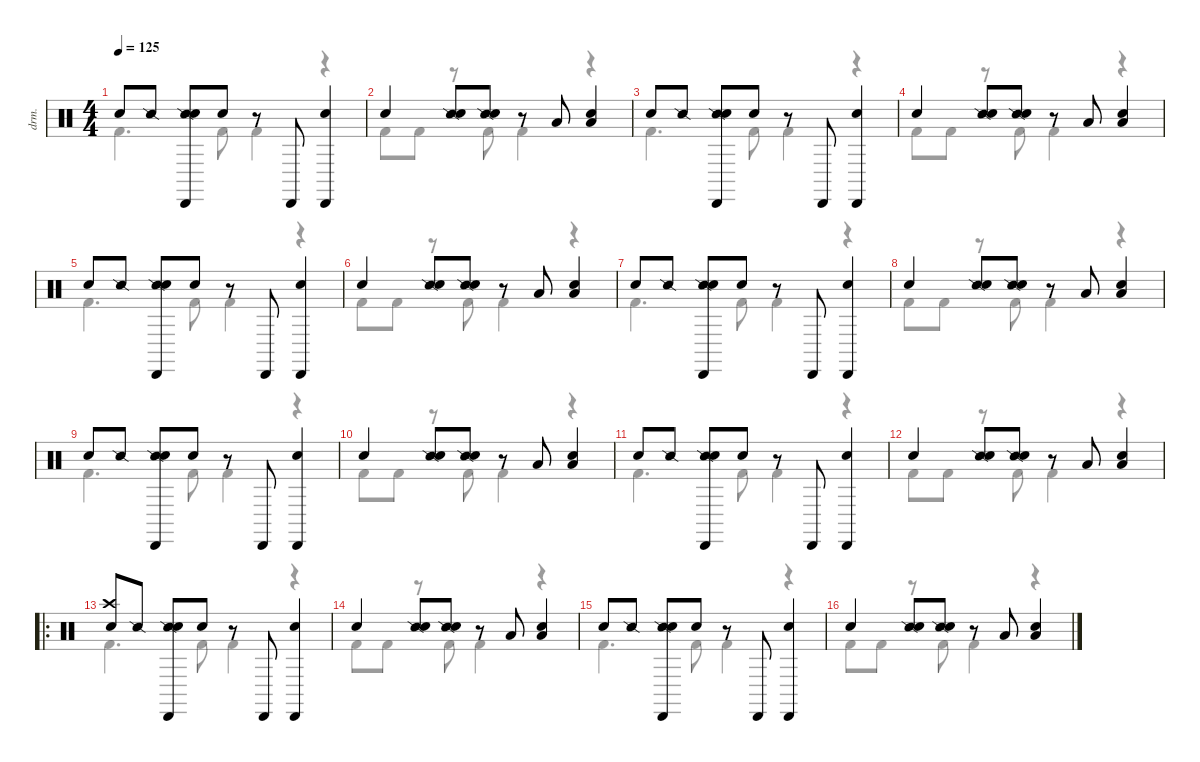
\defaultSystemsLayout 4
\hideDynamics
\bracketExtendMode nobrackets
\otherSystemsTrackNameOrientation horizontal
\track ("Drums" "drm.") {instrument percussion}
\staff {score}
\articulation defaults
\voice
\ts (4 4)
\tempo 125
\clef neutral
\ks c "Hand Clap (hit)".8{dy p beam Up} "Snare (side stick) 2".8{dy f beam Up}
("Snare (side stick) 2" "Cabasa (hit)" "Snare (hit) 2").8{beam Up} "Hand Clap (hit)".8{dy p beam Up} r.8{beam Up} "Cabasa (hit)".8{dy f beam Up} ("Cabasa (hit)" "Snare (hit) 2").4{beam Up} |
"Hand Clap (hit)".4{dy p beam Up} ("Snare (side stick) 2" "Snare (hit) 2").8{dy mf beam Up} ("Snare (side stick) 2" "Hand Clap (hit)").8{beam Up} r.8{beam Up} "Low Tom (hit)".8{dy f beam Up} ("Low Tom (hit)" "Snare (hit) 2").4{beam Up} |
"Hand Clap (hit)".8{dy p beam Up} "Snare (side stick) 2".8{dy f beam Up} ("Snare (side stick) 2" "Cabasa (hit)" "Snare (hit) 2").8{beam Up} "Hand Clap (hit)".8{dy p beam Up} r.8{beam Up} "Cabasa (hit)".8{dy f beam Up} ("Cabasa (hit)" "Snare (hit) 2").4{beam Up} |
"Hand Clap (hit)".4{dy p beam Up} ("Snare (side stick) 2" "Snare (hit) 2").8{dy mf beam Up} ("Snare (side stick) 2" "Hand Clap (hit)").8{beam Up} r.8{beam Up} "Low Tom (hit)".8{dy f beam Up} ("Low Tom (hit)" "Snare (hit) 2").4{beam Up} |
"Hand Clap (hit)".8{dy p beam Up} "Snare (side stick) 2".8{dy f beam Up} ("Snare (side stick) 2" "Cabasa (hit)" "Snare (hit) 2").8{beam Up} "Hand Clap (hit)".8{dy p beam Up} r.8{beam Up} "Cabasa (hit)".8{dy f beam Up} ("Cabasa (hit)" "Snare (hit) 2").4{beam Up} |
"Hand Clap (hit)".4{dy p beam Up} ("Snare (side stick) 2" "Snare (hit) 2").8{dy mf beam Up} ("Snare (side stick) 2" "Hand Clap (hit)").8{beam Up} r.8{beam Up} "Low Tom (hit)".8{dy f beam Up} ("Low Tom (hit)" "Snare (hit) 2").4{beam Up} |
"Hand Clap (hit)".8{dy p beam Up} "Snare (side stick) 2".8{dy f beam Up} ("Snare (side stick) 2" "Cabasa (hit)" "Snare (hit) 2").8{beam Up} "Hand Clap (hit)".8{dy p beam Up} r.8{beam Up} "Cabasa (hit)".8{dy f beam Up} ("Cabasa (hit)" "Snare (hit) 2").4{beam Up} |
"Hand Clap (hit)".4{dy p beam Up} ("Snare (side stick) 2" "Snare (hit) 2").8{dy mf beam Up} ("Snare (side stick) 2" "Hand Clap (hit)").8{beam Up} r.8{beam Up} "Low Tom (hit)".8{dy f beam Up} ("Low Tom (hit)" "Snare (hit) 2").4{beam Up} |
"Hand Clap (hit)".8{dy p beam Up} "Snare (side stick) 2".8{dy f beam Up} ("Snare (side stick) 2" "Cabasa (hit)" "Snare (hit) 2").8{beam Up} "Hand Clap (hit)".8{dy p beam Up} r.8{beam Up} "Cabasa (hit)".8{dy f beam Up} ("Cabasa (hit)" "Snare (hit) 2").4{beam Up} |
"Hand Clap (hit)".4{dy p beam Up} ("Snare (side stick) 2" "Snare (hit) 2").8{dy mf beam Up} ("Snare (side stick) 2" "Hand Clap (hit)").8{beam Up} r.8{beam Up} "Low Tom (hit)".8{dy f beam Up} ("Low Tom (hit)" "Snare (hit) 2").4{beam Up} |
"Hand Clap (hit)".8{dy p beam Up} "Snare (side stick) 2".8{dy f beam Up} ("Snare (side stick) 2" "Cabasa (hit)" "Snare (hit) 2").8{beam Up} "Hand Clap (hit)".8{dy p beam Up} r.8{beam Up} "Cabasa (hit)".8{dy f beam Up} ("Cabasa (hit)" "Snare (hit) 2").4{beam Up} |
"Hand Clap (hit)".4{dy p beam Up} ("Snare (side stick) 2" "Snare (hit) 2").8{dy mf beam Up} ("Snare (side stick) 2" "Hand Clap (hit)").8{beam Up} r.8{beam Up} "Low Tom (hit)".8{dy f beam Up} ("Low Tom (hit)" "Snare (hit) 2").4{beam Up} |
\ro
("Crash high (hit)" "Hand Clap (hit)").8{dy mp beam Up} "Snare (side stick) 2".8{dy f beam Up} ("Snare (side stick) 2" "Cabasa (hit)" "Snare (hit) 2").8{beam Up} "Hand Clap (hit)".8{dy p beam Up} r.8{beam Up} "Cabasa (hit)".8{dy f beam Up} ("Cabasa (hit)" "Snare (hit) 2").4{beam Up} |
"Hand Clap (hit)".4{dy p beam Up} ("Snare (side stick) 2" "Snare (hit) 2").8{dy mf beam Up} ("Snare (side stick) 2" "Hand Clap (hit)").8{beam Up} r.8{beam Up} "Low Tom (hit)".8{dy f beam Up} ("Low Tom (hit)" "Snare (hit) 2").4{beam Up} |
"Hand Clap (hit)".8{dy p beam Up} "Snare (side stick) 2".8{dy f beam Up} ("Snare (side stick) 2" "Cabasa (hit)" "Snare (hit) 2").8{beam Up} "Hand Clap (hit)".8{dy p beam Up} r.8{beam Up} "Cabasa (hit)".8{dy f beam Up} ("Cabasa (hit)" "Snare (hit) 2").4{beam Up} |
"Hand Clap (hit)".4{dy p beam Up} ("Snare (side stick) 2" "Snare (hit) 2").8{dy mf beam Up} ("Snare (side stick) 2" "Hand Clap (hit)").8{beam Up} r.8{beam Up} "Low Tom (hit)".8{dy f beam Up} ("Low Tom (hit)" "Snare (hit) 2").4{beam Up}
\voice
\clef neutral
\ottava regular
\simile none
\ks c "Kick (hit) 2".4{d dy ff beam Down} "Kick (hit) 2".8{beam Down} "Kick (hit) 2".4{dy p beam Down}
r.4{beam Down} |
"Kick (hit) 2".8{dy ff beam Down} "Kick (hit) 2".8{dy p beam Down} r.8{beam Down} "Kick (hit) 2".8{dy ff beam Down} "Kick (hit) 2".4{dy p beam Down} r.4{beam Down} |
"Kick (hit) 2".4{d dy ff beam Down} "Kick (hit) 2".8{beam Down} "Kick (hit) 2".4{dy p beam Down} r.4{beam Down} |
"Kick (hit) 2".8{dy ff beam Down} "Kick (hit) 2".8{dy p beam Down} r.8{beam Down} "Kick (hit) 2".8{dy ff beam Down} "Kick (hit) 2".4{dy p beam Down} r.4{beam Down} |
"Kick (hit) 2".4{d dy ff beam Down} "Kick (hit) 2".8{beam Down} "Kick (hit) 2".4{dy p beam Down} r.4{beam Down} |
"Kick (hit) 2".8{dy ff beam Down} "Kick (hit) 2".8{dy p beam Down} r.8{beam Down} "Kick (hit) 2".8{dy ff beam Down} "Kick (hit) 2".4{dy p beam Down} r.4{beam Down} |
"Kick (hit) 2".4{d dy ff beam Down} "Kick (hit) 2".8{beam Down} "Kick (hit) 2".4{dy p beam Down} r.4{beam Down} |
"Kick (hit) 2".8{dy ff beam Down} "Kick (hit) 2".8{dy p beam Down} r.8{beam Down} "Kick (hit) 2".8{dy ff beam Down} "Kick (hit) 2".4{dy p beam Down} r.4{beam Down} |
"Kick (hit) 2".4{d dy ff beam Down} "Kick (hit) 2".8{beam Down} "Kick (hit) 2".4{dy p beam Down} r.4{beam Down} |
"Kick (hit) 2".8{dy ff beam Down} "Kick (hit) 2".8{dy p beam Down} r.8{beam Down} "Kick (hit) 2".8{dy ff beam Down} "Kick (hit) 2".4{dy p beam Down} r.4{beam Down} |
"Kick (hit) 2".4{d dy ff beam Down} "Kick (hit) 2".8{beam Down} "Kick (hit) 2".4{dy p beam Down} r.4{beam Down} |
"Kick (hit) 2".8{dy ff beam Down} "Kick (hit) 2".8{dy p beam Down} r.8{beam Down} "Kick (hit) 2".8{dy ff beam Down} "Kick (hit) 2".4{dy p beam Down} r.4{beam Down} |
"Kick (hit) 2".4{d dy ff beam Down} "Kick (hit) 2".8{beam Down} "Kick (hit) 2".4{dy p beam Down} r.4{beam Down} |
"Kick (hit) 2".8{dy ff beam Down} "Kick (hit) 2".8{dy p beam Down} r.8{beam Down} "Kick (hit) 2".8{dy ff beam Down} "Kick (hit) 2".4{dy p beam Down} r.4{beam Down} |
"Kick (hit) 2".4{d dy ff beam Down} "Kick (hit) 2".8{beam Down} "Kick (hit) 2".4{dy p beam Down} r.4{beam Down} |
"Kick (hit) 2".8{dy ff beam Down} "Kick (hit) 2".8{dy p beam Down} r.8{beam Down} "Kick (hit) 2".8{dy ff beam Down} "Kick (hit) 2".4{dy p beam Down} r.4{beam Down}
